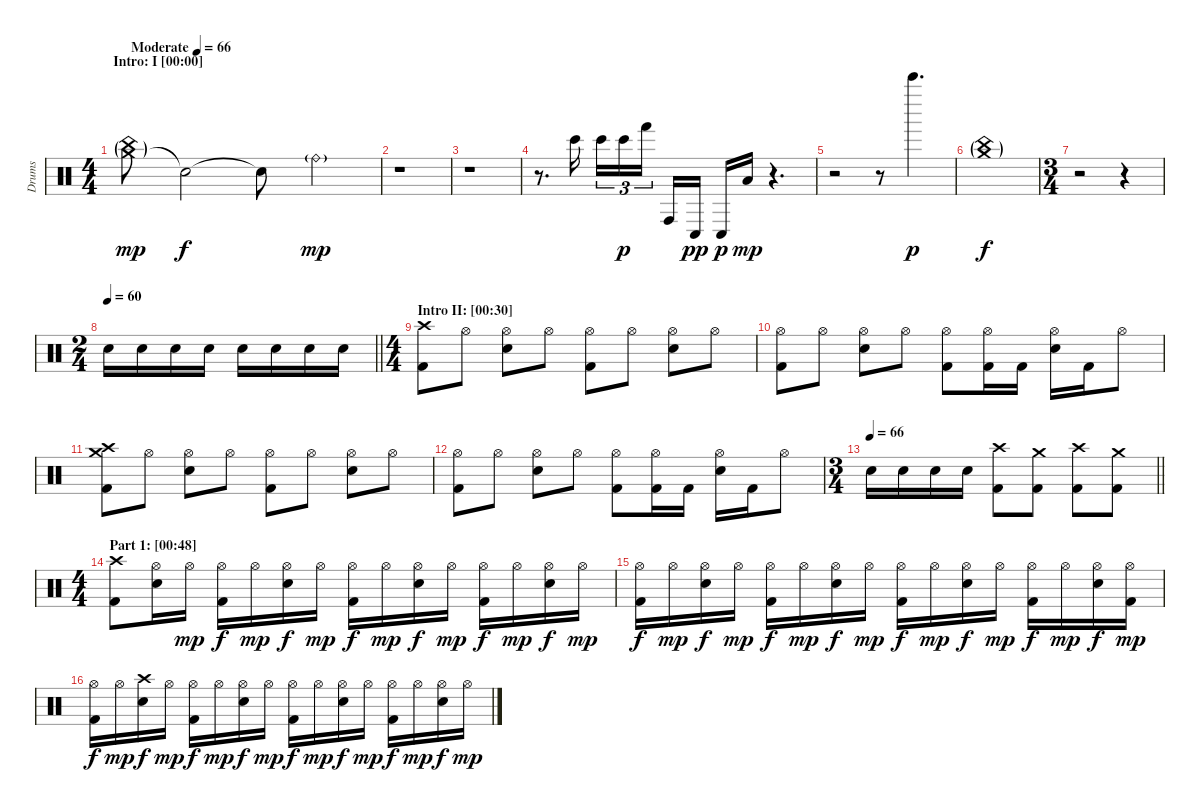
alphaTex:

\track ("Drums" "Drums") {instrument percussion}
\staff {score}
\articulation defaults
\ts (4 4)
\section ("" "Intro: I [00:00]")
\tempo (66 "Moderate")
\tempo 58
\tempo (66 "Moderate")
\clef neutral
\ks c
("Crash medium (hit)"{g} "China (hit)"{g}).8{dy mp} "Snare (hit)"{t}.2{dy f} "Snare (hit)"{t}.8 "Ride (bell)"{g}.4{dy mp} |
r.1 |
r.1 |
r.8{d} "Bongo High (hit)".16 "Bongo High (hit)".16{tu (3 2)} "Bongo High (hit)".16{tu (3 2) dy p} "Hand (hit)".16{tu (3 2) beam splitsecondary} "Conga high (hit)".16 "Conga low (hit)".16{dy pp} "Conga low (hit)".16{dy p} "Low Tom (hit)".16{dy mp} r.4{d} |
r.2 r.8 "Bell Tree (hit)".4{d dy p} |
("Crash medium (hit)"{g} "China (hit)"{g}).1{dy f} |
\ts (3 4)
r.2 r.4 |
\ts (2 4)
\tempo 60
\barLineRight lightlight "Electric Snare (hit)".16 "Electric Snare (hit)".16 "Electric Snare (hit)".16 "Electric Snare (hit)".16 "Electric Snare (hit)".16 "Electric Snare (hit)".16 "Electric Snare (hit)".16 "Electric Snare (hit)".16
|
\ts (4 4)
\section ("" "Intro II: [00:30]")
("Crash high (hit)" "Kick (hit) 2").8 "Hi-Hat (open)".8 ("Hi-Hat (open)" "Electric Snare (hit)").8 "Hi-Hat (open)".8 ("Hi-Hat (open)" "Kick (hit) 2").8 "Hi-Hat (open)".8 ("Hi-Hat (open)" "Electric Snare (hit)").8 "Hi-Hat (open)".8 |
("Hi-Hat (open)" "Kick (hit) 2").8 "Hi-Hat (open)".8 ("Hi-Hat (open)" "Electric Snare (hit)").8 "Hi-Hat (open)".8 ("Hi-Hat (open)" "Kick (hit) 2").8 ("Hi-Hat (open)" "Kick (hit) 2").16 "Kick (hit) 2".16 ("Hi-Hat (open)" "Electric Snare (hit)").16 "Kick (hit) 2".16 "Hi-Hat (open)".8 |
("Crash high (hit)" "Crash medium (hit)" "Kick (hit) 2").8 "Hi-Hat (open)".8 ("Hi-Hat (open)" "Electric Snare (hit)").8 "Hi-Hat (open)".8 ("Hi-Hat (open)" "Kick (hit) 2").8 "Hi-Hat (open)".8 ("Hi-Hat (open)" "Electric Snare (hit)").8 "Hi-Hat (open)".8 |
("Hi-Hat (open)" "Kick (hit) 2").8 "Hi-Hat (open)".8 ("Hi-Hat (open)" "Electric Snare (hit)").8 "Hi-Hat (open)".8 ("Hi-Hat (open)" "Kick (hit) 2").8 ("Hi-Hat (open)" "Kick (hit) 2").16 "Kick (hit) 2".16 ("Hi-Hat (open)" "Electric Snare (hit)").16 "Kick (hit) 2".16 "Hi-Hat (open)".8 |
\ts (3 4)
\tempo 66
\barLineRight lightlight "Electric Snare (hit)".16 "Electric Snare (hit)".16 "Electric Snare (hit)".16 "Electric Snare (hit)".16
("Crash high (hit)" "Kick (hit) 2").8 ("Crash medium (hit)" "Kick (hit) 2").8 ("Crash high (hit)" "Kick (hit) 2").8 ("Crash medium (hit)" "Kick (hit) 2").8 |
\ts (4 4)
\section ("" "Part 1: [00:48]")
("Crash high (hit)" "Kick (hit) 2").8 ("Hi-Hat (open)" "Electric Snare (hit)").16 "Hi-Hat (open)".16{dy mp} ("Hi-Hat (open)" "Kick (hit) 2").16{dy f} "Hi-Hat (open)".16{dy mp} ("Hi-Hat (open)" "Electric Snare (hit)").16{dy f} "Hi-Hat (open)".16{dy mp} ("Hi-Hat (open)" "Kick (hit) 2").16{dy f} "Hi-Hat (open)".16{dy mp} ("Hi-Hat (open)" "Electric Snare (hit)").16{dy f} "Hi-Hat (open)".16{dy mp} ("Hi-Hat (open)" "Kick (hit) 2").16{dy f} "Hi-Hat (open)".16{dy mp} ("Hi-Hat (open)" "Electric Snare (hit)").16{dy f} "Hi-Hat (open)".16{dy mp} |
("Hi-Hat (open)" "Kick (hit) 2").16{dy f} "Hi-Hat (open)".16{dy mp} ("Hi-Hat (open)" "Electric Snare (hit)").16{dy f} "Hi-Hat (open)".16{dy mp} ("Hi-Hat (open)" "Kick (hit) 2").16{dy f} "Hi-Hat (open)".16{dy mp} ("Hi-Hat (open)" "Electric Snare (hit)").16{dy f} "Hi-Hat (open)".16{dy mp} ("Hi-Hat (open)" "Kick (hit) 2").16{dy f} "Hi-Hat (open)".16{dy mp} ("Hi-Hat (open)" "Electric Snare (hit)").16{dy f} "Hi-Hat (open)".16{dy mp} ("Hi-Hat (open)" "Kick (hit) 2").16{dy f} "Hi-Hat (open)".16{dy mp} ("Hi-Hat (open)" "Electric Snare (hit)").16{dy f} ("Hi-Hat (open)" "Kick (hit) 2").16{dy mp} |
("Hi-Hat (open)" "Kick (hit) 2").16{dy f} "Hi-Hat (open)".16{dy mp} ("Crash high (hit)" "Electric Snare (hit)").16{dy f} "Hi-Hat (open)".16{dy mp} ("Hi-Hat (open)" "Kick (hit) 2").16{dy f} "Hi-Hat (open)".16{dy mp} ("Hi-Hat (open)" "Electric Snare (hit)").16{dy f} "Hi-Hat (open)".16{dy mp} ("Hi-Hat (open)" "Kick (hit) 2").16{dy f} "Hi-Hat (open)".16{dy mp} ("Hi-Hat (open)" "Electric Snare (hit)").16{dy f} "Hi-Hat (open)".16{dy mp} ("Hi-Hat (open)" "Kick (hit) 2").16{dy f} "Hi-Hat (open)".16{dy mp} ("Hi-Hat (open)" "Electric Snare (hit)").16{dy f} "Hi-Hat (open)".16{dy mp}
